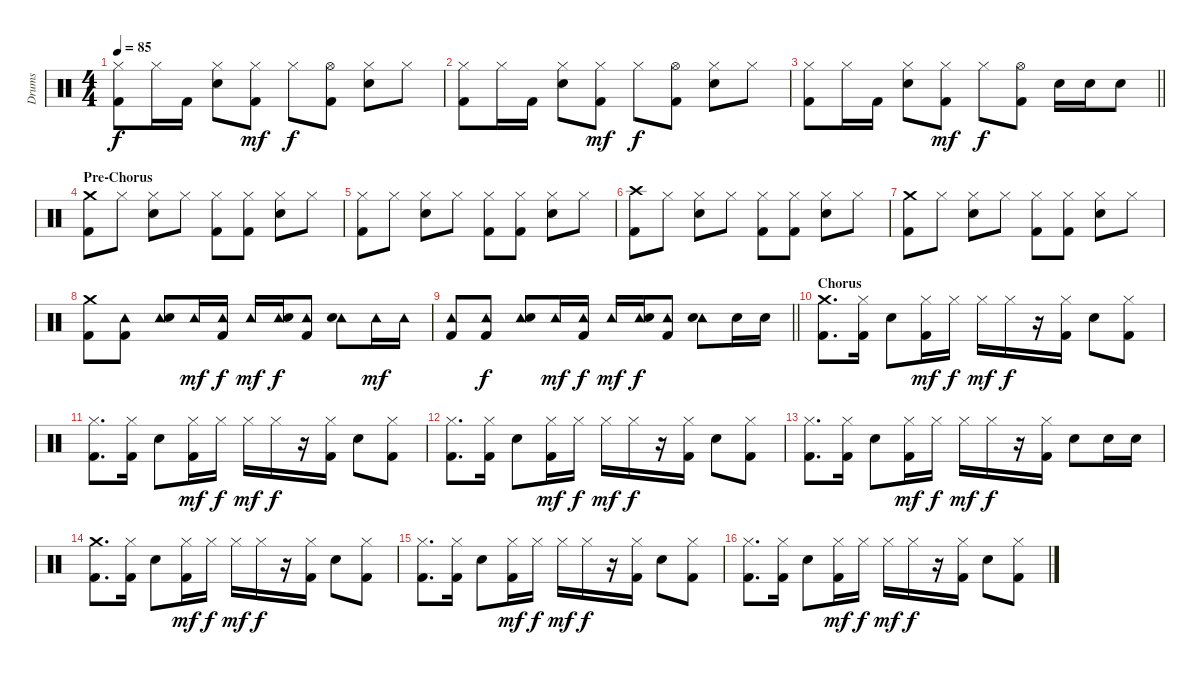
\track ("Drums" "Drums") {instrument percussion}
\staff {score}
\articulation defaults
\ts (4 4)
\tempo 85
\clef neutral
\ks c
("Hi-Hat (closed)" "Kick (hit) 2").8{dy f} "Hi-Hat (closed)".16 "Kick (hit) 2".16 ("Hi-Hat (closed)" "Snare (hit) 2").8 ("Hi-Hat (closed)" "Kick (hit) 2").8{dy mf} "Hi-Hat (closed)".8{dy f} ("Hi-Hat (open)" "Kick (hit) 2").8 ("Hi-Hat (closed)" "Snare (hit) 2").8 "Hi-Hat (closed)".8 |
("Hi-Hat (closed)" "Kick (hit) 2").8 "Hi-Hat (closed)".16 "Kick (hit) 2".16 ("Hi-Hat (closed)" "Snare (hit) 2").8 ("Hi-Hat (closed)" "Kick (hit) 2").8{dy mf} "Hi-Hat (closed)".8{dy f} ("Hi-Hat (open)" "Kick (hit) 2").8 ("Hi-Hat (closed)" "Snare (hit) 2").8 "Hi-Hat (closed)".8 |
\barLineRight lightlight
("Hi-Hat (closed)" "Kick (hit) 2").8 "Hi-Hat (closed)".16 "Kick (hit) 2".16 ("Hi-Hat (closed)" "Snare (hit) 2").8 ("Hi-Hat (closed)" "Kick (hit) 2").8{dy mf} "Hi-Hat (closed)".8{dy f} ("Hi-Hat (open)" "Kick (hit) 2").8 "Snare (hit) 2".16 "Snare (hit) 2".16 "Snare (hit) 2".8 |
\section ("" "Pre-Chorus")
("Crash medium (hit)" "Kick (hit) 2").8 "Hi-Hat (closed)".8 ("Hi-Hat (closed)" "Snare (hit) 2").8 "Hi-Hat (closed)".8 ("Hi-Hat (closed)" "Kick (hit) 2").8 ("Hi-Hat (closed)" "Kick (hit) 2").8 ("Hi-Hat (closed)" "Snare (hit) 2").8 "Hi-Hat (closed)".8 |
("Hi-Hat (closed)" "Kick (hit) 2").8 "Hi-Hat (closed)".8 ("Hi-Hat (closed)" "Snare (hit) 2").8 "Hi-Hat (closed)".8 ("Hi-Hat (closed)" "Kick (hit) 2").8 ("Hi-Hat (closed)" "Kick (hit) 2").8 ("Hi-Hat (closed)" "Snare (hit) 2").8 "Hi-Hat (closed)".8 |
("Crash high (hit)" "Kick (hit) 2").8 "Hi-Hat (closed)".8 ("Hi-Hat (closed)" "Snare (hit) 2").8 "Hi-Hat (closed)".8 ("Hi-Hat (closed)" "Kick (hit) 2").8 ("Hi-Hat (closed)" "Kick (hit) 2").8 ("Hi-Hat (closed)" "Snare (hit) 2").8 "Hi-Hat (closed)".8 |
("Crash medium (hit)" "Kick (hit) 2").8 "Hi-Hat (closed)".8 ("Hi-Hat (closed)" "Snare (hit) 2").8 "Hi-Hat (closed)".8 ("Hi-Hat (closed)" "Kick (hit) 2").8 ("Hi-Hat (closed)" "Kick (hit) 2").8 ("Hi-Hat (closed)" "Snare (hit) 2").8 "Hi-Hat (closed)".8 |
("Crash medium (hit)" "Kick (hit) 2").8 ("Tambourine (hit)" "Kick (hit) 2").8 ("Tambourine (hit)" "Snare (hit) 2").8 "Tambourine (hit)".16{dy mf} ("Tambourine (hit)" "Kick (hit) 2").16{dy f} "Tambourine (hit)".16{dy mf} ("Tambourine (hit)" "Snare (hit) 2").16{dy f} ("Tambourine (hit)" "Kick (hit) 2").8 ("Tambourine (hit)" "Snare (hit) 2").8 "Tambourine (hit)".16{dy mf} "Tambourine (hit)".16 |
\barLineRight lightlight
("Tambourine (hit)" "Kick (hit) 2").8 ("Tambourine (hit)" "Kick (hit) 2").8{dy f} ("Tambourine (hit)" "Snare (hit) 2").8 "Tambourine (hit)".16{dy mf} ("Tambourine (hit)" "Kick (hit) 2").16{dy f} "Tambourine (hit)".16{dy mf} ("Tambourine (hit)" "Snare (hit) 2").16{dy f} ("Tambourine (hit)" "Kick (hit) 2").8 ("Tambourine (hit)" "Snare (hit) 2").8 "Snare (hit) 2".16 "Snare (hit) 2".16 |
\section ("" "Chorus")
("Crash medium (hit)" "Kick (hit) 2").8{d} ("Hi-Hat (closed)" "Kick (hit) 2").16 "Snare (hit) 2".8 ("Hi-Hat (closed)" "Kick (hit) 2").16{dy mf} "Hi-Hat (closed)".16{dy f} "Hi-Hat (closed)".16{dy mf} "Hi-Hat (closed)".16{dy f} r.16 ("Hi-Hat (closed)" "Kick (hit) 2").16 "Snare (hit) 2".8 ("Hi-Hat (closed)" "Kick (hit) 2").8 |
("Hi-Hat (closed)" "Kick (hit) 2").8{d} ("Hi-Hat (closed)" "Kick (hit) 2").16 "Snare (hit) 2".8 ("Hi-Hat (closed)" "Kick (hit) 2").16{dy mf} "Hi-Hat (closed)".16{dy f} "Hi-Hat (closed)".16{dy mf} "Hi-Hat (closed)".16{dy f} r.16 ("Hi-Hat (closed)" "Kick (hit) 2").16 "Snare (hit) 2".8 ("Hi-Hat (closed)" "Kick (hit) 2").8 |
("Hi-Hat (closed)" "Kick (hit) 2").8{d} ("Hi-Hat (closed)" "Kick (hit) 2").16 "Snare (hit) 2".8 ("Hi-Hat (closed)" "Kick (hit) 2").16{dy mf} "Hi-Hat (closed)".16{dy f} "Hi-Hat (closed)".16{dy mf} "Hi-Hat (closed)".16{dy f} r.16 ("Hi-Hat (closed)" "Kick (hit) 2").16 "Snare (hit) 2".8 ("Hi-Hat (closed)" "Kick (hit) 2").8 |
("Hi-Hat (closed)" "Kick (hit) 2").8{d} ("Hi-Hat (closed)" "Kick (hit) 2").16 "Snare (hit) 2".8 ("Hi-Hat (closed)" "Kick (hit) 2").16{dy mf} "Hi-Hat (closed)".16{dy f} "Hi-Hat (closed)".16{dy mf} "Hi-Hat (closed)".16{dy f} r.16 ("Hi-Hat (closed)" "Kick (hit) 2").16 "Snare (hit) 2".8 "Snare (hit) 2".16 "Snare (hit) 2".16 |
("Crash medium (hit)" "Kick (hit) 2").8{d} ("Hi-Hat (closed)" "Kick (hit) 2").16 "Snare (hit) 2".8 ("Hi-Hat (closed)" "Kick (hit) 2").16{dy mf} "Hi-Hat (closed)".16{dy f} "Hi-Hat (closed)".16{dy mf} "Hi-Hat (closed)".16{dy f} r.16 ("Hi-Hat (closed)" "Kick (hit) 2").16 "Snare (hit) 2".8 ("Hi-Hat (closed)" "Kick (hit) 2").8 |
("Hi-Hat (closed)" "Kick (hit) 2").8{d} ("Hi-Hat (closed)" "Kick (hit) 2").16 "Snare (hit) 2".8 ("Hi-Hat (closed)" "Kick (hit) 2").16{dy mf} "Hi-Hat (closed)".16{dy f} "Hi-Hat (closed)".16{dy mf} "Hi-Hat (closed)".16{dy f} r.16 ("Hi-Hat (closed)" "Kick (hit) 2").16 "Snare (hit) 2".8 ("Hi-Hat (closed)" "Kick (hit) 2").8 |
("Hi-Hat (closed)" "Kick (hit) 2").8{d} ("Hi-Hat (closed)" "Kick (hit) 2").16 "Snare (hit) 2".8 ("Hi-Hat (closed)" "Kick (hit) 2").16{dy mf} "Hi-Hat (closed)".16{dy f} "Hi-Hat (closed)".16{dy mf} "Hi-Hat (closed)".16{dy f} r.16 ("Hi-Hat (closed)" "Kick (hit) 2").16 "Snare (hit) 2".8 ("Hi-Hat (closed)" "Kick (hit) 2").8
